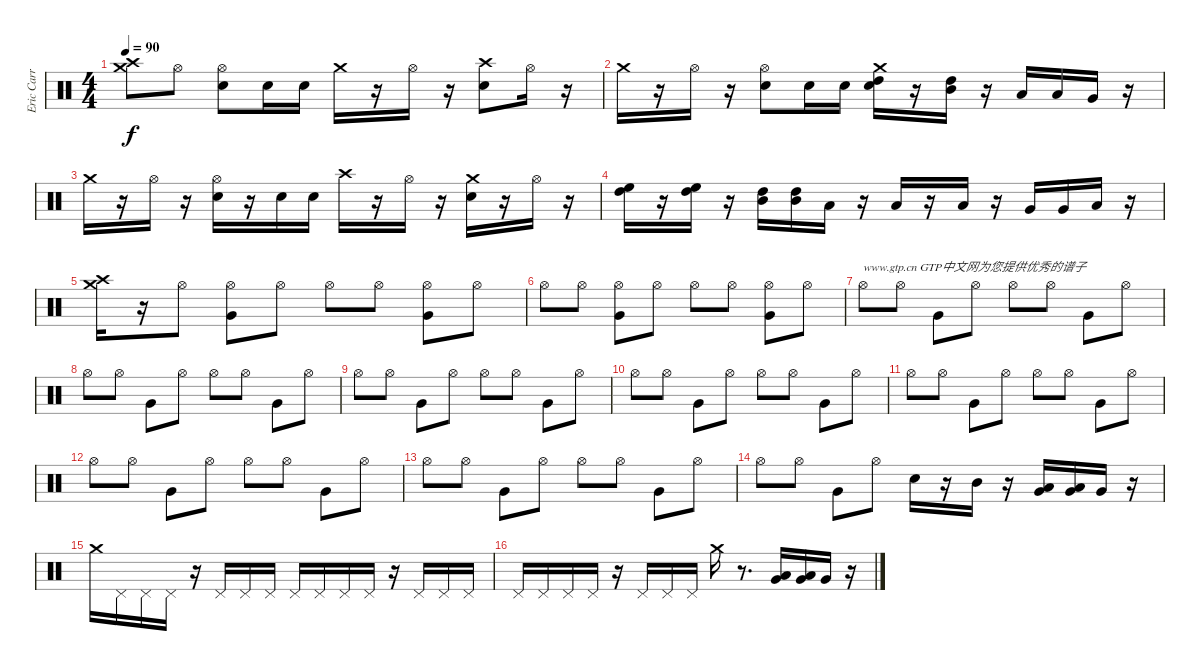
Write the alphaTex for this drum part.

\track ("Eric Carr" "Eric Carr") {instrument percussion}
\staff {score}
\articulation defaults
\ts (4 4)
\tempo 90
\clef neutral
\ks c
("Crash medium (hit)" "Crash high (hit)").8{dy f} "Hi-Hat (open)".8 ("Hi-Hat (open)" "Electric Snare (hit)").8 "Electric Snare (hit)".16 "Electric Snare (hit)".16 "Crash medium (hit)".16 r.16 "Hi-Hat (open)".16 r.16 ("Crash high (hit)" "Electric Snare (hit)").8 "Hi-Hat (open)".16 r.16 |
"Crash medium (hit)".16 r.16 "Hi-Hat (open)".16 r.16 ("Hi-Hat (open)" "Electric Snare (hit)").8 "Electric Snare (hit)".16 "Electric Snare (hit)".16 ("Crash medium (hit)" "High Tom (hit)" "Electric Snare (hit)").16 r.16 ("High Tom (hit)" "Mid Tom (hit)").16 r.16 "Low Tom (hit)".16 "Low Tom (hit)".16 "Very Low Tom (hit)".16 r.16 |
"Crash medium (hit)".16 r.16 "Hi-Hat (open)".16 r.16 ("Hi-Hat (open)" "Electric Snare (hit)").16 r.16 "Electric Snare (hit)".16 "Electric Snare (hit)".16 "Crash high (hit)".16 r.16 "Hi-Hat (open)".16 r.16 ("Crash medium (hit)" "Electric Snare (hit)").16 r.16 "Hi-Hat (open)".16 r.16 |
("High Floor Tom (hit)" "High Tom (hit)").16 r.16 ("High Floor Tom (hit)" "High Tom (hit)").16 r.16 ("High Tom (hit)" "Mid Tom (hit)").16 ("High Tom (hit)" "Mid Tom (hit)").16 "Low Tom (hit)".16 r.16 "Low Tom (hit)".16 r.16 "Low Tom (hit)".16 r.16 "Very Low Tom (hit)".16 "Very Low Tom (hit)".16 "Low Floor Tom (hit)".16 r.16 |
("Crash medium (hit)" "Crash high (hit)").16 r.16 "Hi-Hat (open)".8 ("Hi-Hat (open)" "Very Low Tom (hit)").8 "Hi-Hat (open)".8 "Hi-Hat (open)".8 "Hi-Hat (open)".8 ("Hi-Hat (open)" "Very Low Tom (hit)").8 "Hi-Hat (open)".8 |
"Hi-Hat (open)".8 "Hi-Hat (open)".8 ("Hi-Hat (open)" "Very Low Tom (hit)").8 "Hi-Hat (open)".8 "Hi-Hat (open)".8 "Hi-Hat (open)".8 ("Hi-Hat (open)" "Very Low Tom (hit)").8 "Hi-Hat (open)".8 |
"Hi-Hat (open)".8{txt "www.gtp.cn GTP中文网为您提供优秀的谱子"} "Hi-Hat (open)".8 "Very Low Tom (hit)".8 "Hi-Hat (open)".8 "Hi-Hat (open)".8 "Hi-Hat (open)".8 "Very Low Tom (hit)".8 "Hi-Hat (open)".8 |
"Hi-Hat (open)".8 "Hi-Hat (open)".8 "Very Low Tom (hit)".8 "Hi-Hat (open)".8 "Hi-Hat (open)".8 "Hi-Hat (open)".8 "Very Low Tom (hit)".8 "Hi-Hat (open)".8 |
"Hi-Hat (open)".8 "Hi-Hat (open)".8 "Very Low Tom (hit)".8 "Hi-Hat (open)".8 "Hi-Hat (open)".8 "Hi-Hat (open)".8 "Very Low Tom (hit)".8 "Hi-Hat (open)".8 |
"Hi-Hat (open)".8 "Hi-Hat (open)".8 "Very Low Tom (hit)".8 "Hi-Hat (open)".8 "Hi-Hat (open)".8 "Hi-Hat (open)".8 "Very Low Tom (hit)".8 "Hi-Hat (open)".8 |
"Hi-Hat (open)".8 "Hi-Hat (open)".8 "Very Low Tom (hit)".8 "Hi-Hat (open)".8 "Hi-Hat (open)".8 "Hi-Hat (open)".8 "Very Low Tom (hit)".8 "Hi-Hat (open)".8 |
"Hi-Hat (open)".8 "Hi-Hat (open)".8 "Very Low Tom (hit)".8 "Hi-Hat (open)".8 "Hi-Hat (open)".8 "Hi-Hat (open)".8 "Very Low Tom (hit)".8 "Hi-Hat (open)".8 |
"Hi-Hat (open)".8 "Hi-Hat (open)".8 "Very Low Tom (hit)".8 "Hi-Hat (open)".8 "Hi-Hat (open)".8 "Hi-Hat (open)".8 "Very Low Tom (hit)".8 "Hi-Hat (open)".8 |
"Hi-Hat (open)".8 "Hi-Hat (open)".8 "Very Low Tom (hit)".8 "Hi-Hat (open)".8 "Electric Snare (hit)".16 r.16 "Mid Tom (hit)".16 r.16 ("Low Tom (hit)" "Very Low Tom (hit)").16 ("Low Tom (hit)" "Very Low Tom (hit)").16 "Very Low Tom (hit)".16 r.16 |
"Crash medium (hit)".16 "Pedal Hi-Hat (hit)".16 "Pedal Hi-Hat (hit)".16 "Pedal Hi-Hat (hit)".16 r.16 "Pedal Hi-Hat (hit)".16 "Pedal Hi-Hat (hit)".16 "Pedal Hi-Hat (hit)".16 "Pedal Hi-Hat (hit)".16 "Pedal Hi-Hat (hit)".16 "Pedal Hi-Hat (hit)".16 "Pedal Hi-Hat (hit)".16 r.16 "Pedal Hi-Hat (hit)".16 "Pedal Hi-Hat (hit)".16 "Pedal Hi-Hat (hit)".16 |
"Pedal Hi-Hat (hit)".16 "Pedal Hi-Hat (hit)".16 "Pedal Hi-Hat (hit)".16 "Pedal Hi-Hat (hit)".16 r.16 "Pedal Hi-Hat (hit)".16 "Pedal Hi-Hat (hit)".16 "Pedal Hi-Hat (hit)".16 "Crash medium (hit)".16 r.8{d} ("Low Tom (hit)" "Very Low Tom (hit)").16 ("Low Tom (hit)" "Very Low Tom (hit)").16 "Very Low Tom (hit)".16 r.16
